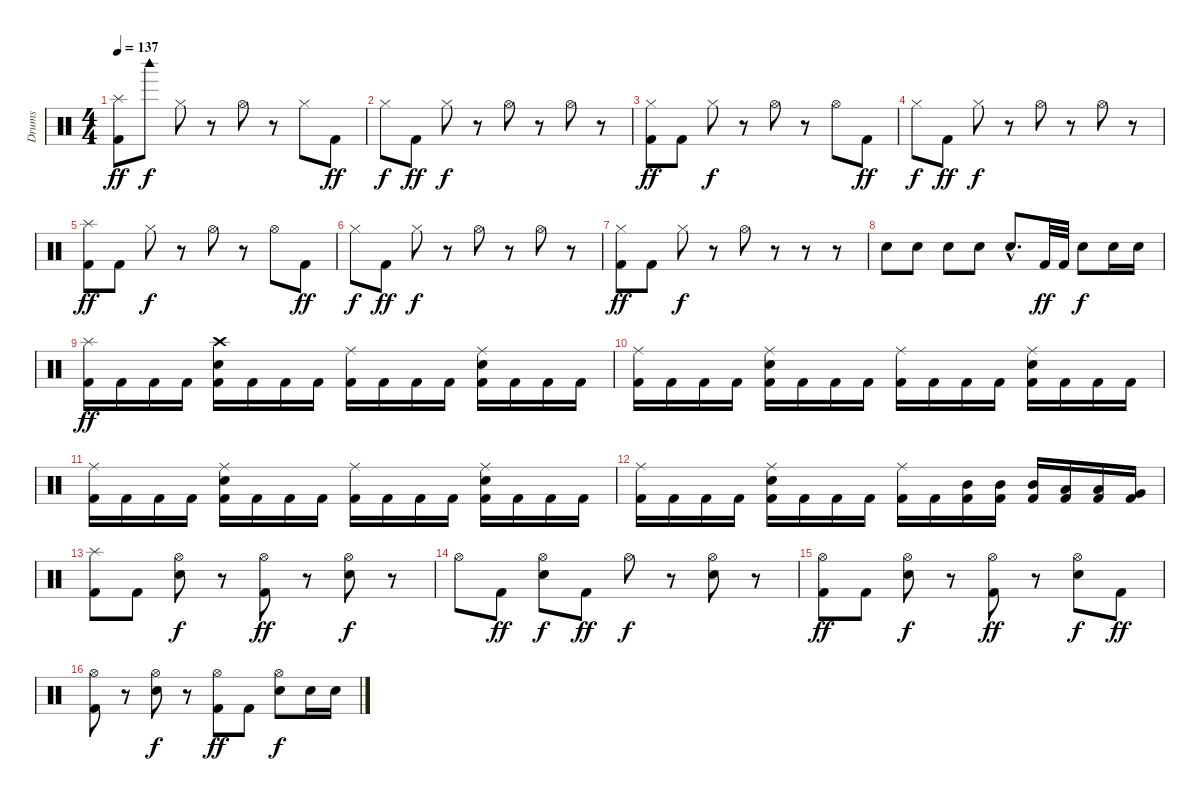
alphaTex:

\track ("Drums" "Drums") {instrument percussion}
\staff {score}
\articulation defaults
\ts (4 4)
\tempo 137
\clef neutral
\ks c
("Splash (hit)" "Kick (hit) 2").8{dy ff} "Woodblock high (hit)".8{dy f} "Hi-Hat (closed)".8 r.8 "Hi-Hat (open)".8 r.8 "Hi-Hat (closed)".8 "Kick (hit) 2".8{dy ff} |
"Hi-Hat (closed)".8{dy f} "Kick (hit) 2".8{dy ff} "Hi-Hat (closed)".8{dy f} r.8 "Hi-Hat (open)".8 r.8 "Hi-Hat (open)".8 r.8 |
("Hi-Hat (closed)" "Kick (hit) 2").8{dy ff} "Kick (hit) 2".8 "Hi-Hat (closed)".8{dy f} r.8 "Hi-Hat (open)".8 r.8 "Hi-Hat (open)".8 "Kick (hit) 2".8{dy ff} |
"Hi-Hat (closed)".8{dy f} "Kick (hit) 2".8{dy ff} "Hi-Hat (closed)".8{dy f} r.8 "Hi-Hat (open)".8 r.8 "Hi-Hat (open)".8 r.8 |
("Splash (hit)" "Kick (hit) 2").8{dy ff} "Kick (hit) 2".8 "Hi-Hat (closed)".8{dy f} r.8 "Hi-Hat (open)".8 r.8 "Hi-Hat (open)".8 "Kick (hit) 2".8{dy ff} |
"Hi-Hat (closed)".8{dy f} "Kick (hit) 2".8{dy ff} "Hi-Hat (closed)".8{dy f} r.8 "Hi-Hat (open)".8 r.8 "Hi-Hat (open)".8 r.8 |
("Hi-Hat (closed)" "Kick (hit) 2").8{dy ff} "Kick (hit) 2".8 "Hi-Hat (closed)".8{dy f} r.8 "Hi-Hat (open)".8 r.8 r.8 r.8 |
"Electric Snare (hit)".8 "Electric Snare (hit)".8 "Electric Snare (hit)".8 "Electric Snare (hit)".8 "Electric Snare (hit)"{hac}.8{d} "Kick (hit) 2".32{dy ff} "Kick (hit) 2".32 "Electric Snare (hit)".8{dy f} "Electric Snare (hit)".16 "Electric Snare (hit)".16 |
("Splash (hit)" "Kick (hit) 2").16{dy ff} "Kick (hit) 2".16 "Kick (hit) 2".16 "Kick (hit) 2".16 ("Crash high (hit)" "Electric Snare (hit)" "Kick (hit) 2").16 "Kick (hit) 2".16 "Kick (hit) 2".16 "Kick (hit) 2".16 ("Ride (middle)" "Kick (hit) 2").16 "Kick (hit) 2".16 "Kick (hit) 2".16 "Kick (hit) 2".16 ("Ride (middle)" "Electric Snare (hit)" "Kick (hit) 2").16 "Kick (hit) 2".16 "Kick (hit) 2".16 "Kick (hit) 2".16 |
("Ride (middle)" "Kick (hit) 2").16 "Kick (hit) 2".16 "Kick (hit) 2".16 "Kick (hit) 2".16 ("Ride (middle)" "Electric Snare (hit)" "Kick (hit) 2").16 "Kick (hit) 2".16 "Kick (hit) 2".16 "Kick (hit) 2".16 ("Ride (middle)" "Kick (hit) 2").16 "Kick (hit) 2".16 "Kick (hit) 2".16 "Kick (hit) 2".16 ("Ride (middle)" "Electric Snare (hit)" "Kick (hit) 2").16 "Kick (hit) 2".16 "Kick (hit) 2".16 "Kick (hit) 2".16 |
("Ride (middle)" "Kick (hit) 2").16 "Kick (hit) 2".16 "Kick (hit) 2".16 "Kick (hit) 2".16 ("Ride (middle)" "Electric Snare (hit)" "Kick (hit) 2").16 "Kick (hit) 2".16 "Kick (hit) 2".16 "Kick (hit) 2".16 ("Ride (middle)" "Kick (hit) 2").16 "Kick (hit) 2".16 "Kick (hit) 2".16 "Kick (hit) 2".16 ("Ride (middle)" "Electric Snare (hit)" "Kick (hit) 2").16 "Kick (hit) 2".16 "Kick (hit) 2".16 "Kick (hit) 2".16 |
("Ride (middle)" "Kick (hit) 2").16 "Kick (hit) 2".16 "Kick (hit) 2".16 "Kick (hit) 2".16 ("Ride (middle)" "Electric Snare (hit)" "Kick (hit) 2").16 "Kick (hit) 2".16 "Kick (hit) 2".16 "Kick (hit) 2".16 ("Ride (middle)" "Kick (hit) 2").16 "Kick (hit) 2".16 ("Mid Tom (hit)" "Kick (hit) 2").16 ("Mid Tom (hit)" "Kick (hit) 2").16 ("Mid Tom (hit)" "Kick (hit) 2").16 ("Low Tom (hit)" "Kick (hit) 2").16 ("Low Tom (hit)" "Kick (hit) 2").16 ("Very Low Tom (hit)" "Kick (hit) 2").16 |
("Splash (hit)" "Kick (hit) 2").8 "Kick (hit) 2".8 ("Hi-Hat (open)" "Electric Snare (hit)").8{dy f} r.8 ("Hi-Hat (open)" "Kick (hit) 2").8{dy ff} r.8 ("Hi-Hat (open)" "Electric Snare (hit)").8{dy f} r.8 |
"Hi-Hat (open)".8 "Kick (hit) 2".8{dy ff} ("Hi-Hat (open)" "Electric Snare (hit)").8{dy f} "Kick (hit) 2".8{dy ff} "Hi-Hat (open)".8{dy f} r.8 ("Hi-Hat (open)" "Electric Snare (hit)").8 r.8 |
("Hi-Hat (open)" "Kick (hit) 2").8{dy ff} "Kick (hit) 2".8 ("Hi-Hat (open)" "Electric Snare (hit)").8{dy f} r.8 ("Hi-Hat (open)" "Kick (hit) 2").8{dy ff} r.8 ("Hi-Hat (open)" "Electric Snare (hit)").8{dy f} "Kick (hit) 2".8{dy ff} |
("Hi-Hat (open)" "Kick (hit) 2").8 r.8 ("Hi-Hat (open)" "Electric Snare (hit)").8{dy f} r.8 ("Hi-Hat (open)" "Kick (hit) 2").8{dy ff} "Kick (hit) 2".8 ("Hi-Hat (open)" "Electric Snare (hit)").8{dy f} "Electric Snare (hit)".16 "Electric Snare (hit)".16
